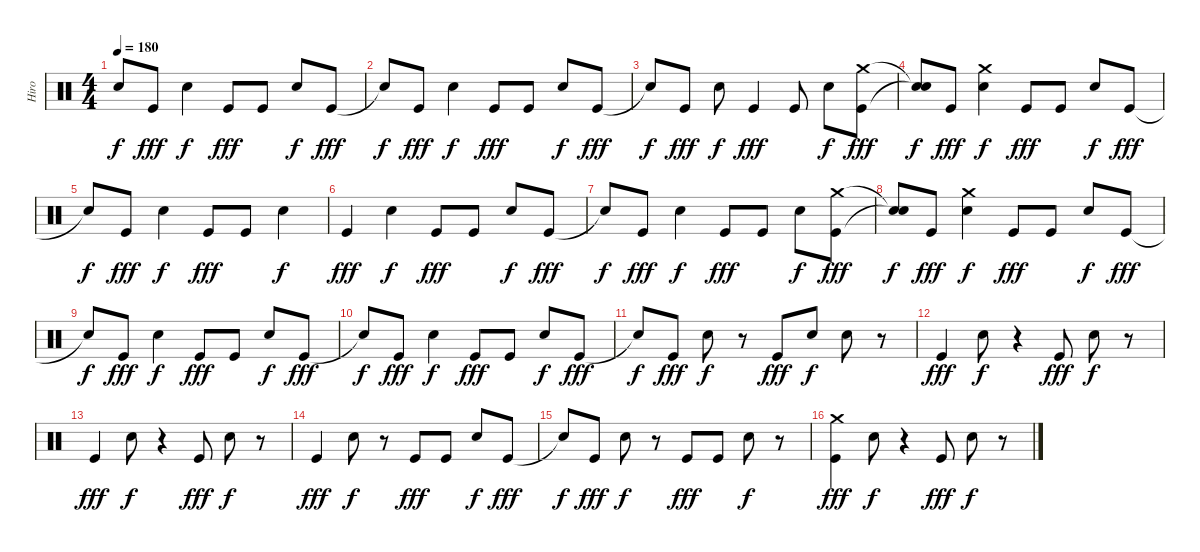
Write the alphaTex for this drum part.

\track ("Hiro" "Hiro") {instrument percussion}
\staff {score}
\articulation defaults
\ts (4 4)
\tempo 180
\clef neutral
\ks c "Snare (hit)"{t}.8{dy f} "Kick (hit)".8{dy fff} "Electric Snare (hit)".4{dy f} "Kick (hit)".8{dy fff} "Kick (hit)".8 "Electric Snare (hit)".8{dy f} "Kick (hit)".8{dy fff}
|
"Snare (hit)"{t}.8{dy f} "Kick (hit)".8{dy fff} "Electric Snare (hit)".4{dy f} "Kick (hit)".8{dy fff} "Kick (hit)".8 "Electric Snare (hit)".8{dy f} "Kick (hit)".8{dy fff} |
"Snare (hit)"{t}.8{dy f} "Kick (hit)".8{dy fff} "Electric Snare (hit)".8{dy f} "Kick (hit)".4{dy fff} "Kick (hit)".8 "Electric Snare (hit)".8{dy f} ("Crash medium (hit)" "Kick (hit)").8{dy fff} |
("Snare (hit)"{t} "Snare (hit)"{t}).8{dy f} "Kick (hit)".8{dy fff} ("Electric Snare (hit)" "Crash medium (hit)").4{dy f} "Kick (hit)".8{dy fff} "Kick (hit)".8 "Electric Snare (hit)".8{dy f} "Kick (hit)".8{dy fff} |
"Snare (hit)"{t}.8{dy f} "Kick (hit)".8{dy fff} "Electric Snare (hit)".4{dy f} "Kick (hit)".8{dy fff} "Kick (hit)".8 "Electric Snare (hit)".4{dy f} |
"Kick (hit)".4{dy fff} "Electric Snare (hit)".4{dy f} "Kick (hit)".8{dy fff} "Kick (hit)".8 "Electric Snare (hit)".8{dy f} "Kick (hit)".8{dy fff} |
"Snare (hit)"{t}.8{dy f} "Kick (hit)".8{dy fff} "Electric Snare (hit)".4{dy f} "Kick (hit)".8{dy fff} "Kick (hit)".8 "Electric Snare (hit)".8{dy f} ("Crash medium (hit)" "Kick (hit)").8{dy fff} |
("Snare (hit)"{t} "Snare (hit)"{t}).8{dy f} "Kick (hit)".8{dy fff} ("Electric Snare (hit)" "Crash medium (hit)").4{dy f} "Kick (hit)".8{dy fff} "Kick (hit)".8 "Electric Snare (hit)".8{dy f} "Kick (hit)".8{dy fff} |
"Snare (hit)"{t}.8{dy f} "Kick (hit)".8{dy fff} "Electric Snare (hit)".4{dy f} "Kick (hit)".8{dy fff} "Kick (hit)".8 "Electric Snare (hit)".8{dy f} "Kick (hit)".8{dy fff} |
"Snare (hit)"{t}.8{dy f} "Kick (hit)".8{dy fff} "Electric Snare (hit)".4{dy f} "Kick (hit)".8{dy fff} "Kick (hit)".8 "Electric Snare (hit)".8{dy f} "Kick (hit)".8{dy fff} |
"Snare (hit)"{t}.8{dy f} "Kick (hit)".8{dy fff} "Electric Snare (hit)".8{dy f} r.8 "Kick (hit)".8{dy fff} "Electric Snare (hit)".8{dy f} "Electric Snare (hit)".8 r.8 |
"Kick (hit)".4{dy fff} "Electric Snare (hit)".8{dy f} r.4 "Kick (hit)".8{dy fff} "Electric Snare (hit)".8{dy f} r.8 |
"Kick (hit)".4{dy fff} "Electric Snare (hit)".8{dy f} r.4 "Kick (hit)".8{dy fff} "Electric Snare (hit)".8{dy f} r.8 |
"Kick (hit)".4{dy fff} "Electric Snare (hit)".8{dy f} r.8 "Kick (hit)".8{dy fff} "Kick (hit)".8 "Electric Snare (hit)".8{dy f} "Kick (hit)".8{dy fff} |
"Snare (hit)"{t}.8{dy f} "Kick (hit)".8{dy fff} "Electric Snare (hit)".8{dy f} r.8 "Kick (hit)".8{dy fff} "Kick (hit)".8 "Electric Snare (hit)".8{dy f} r.8 |
("Crash medium (hit)" "Kick (hit)").4{dy fff} "Electric Snare (hit)".8{dy f} r.4 "Kick (hit)".8{dy fff} "Electric Snare (hit)".8{dy f} r.8
